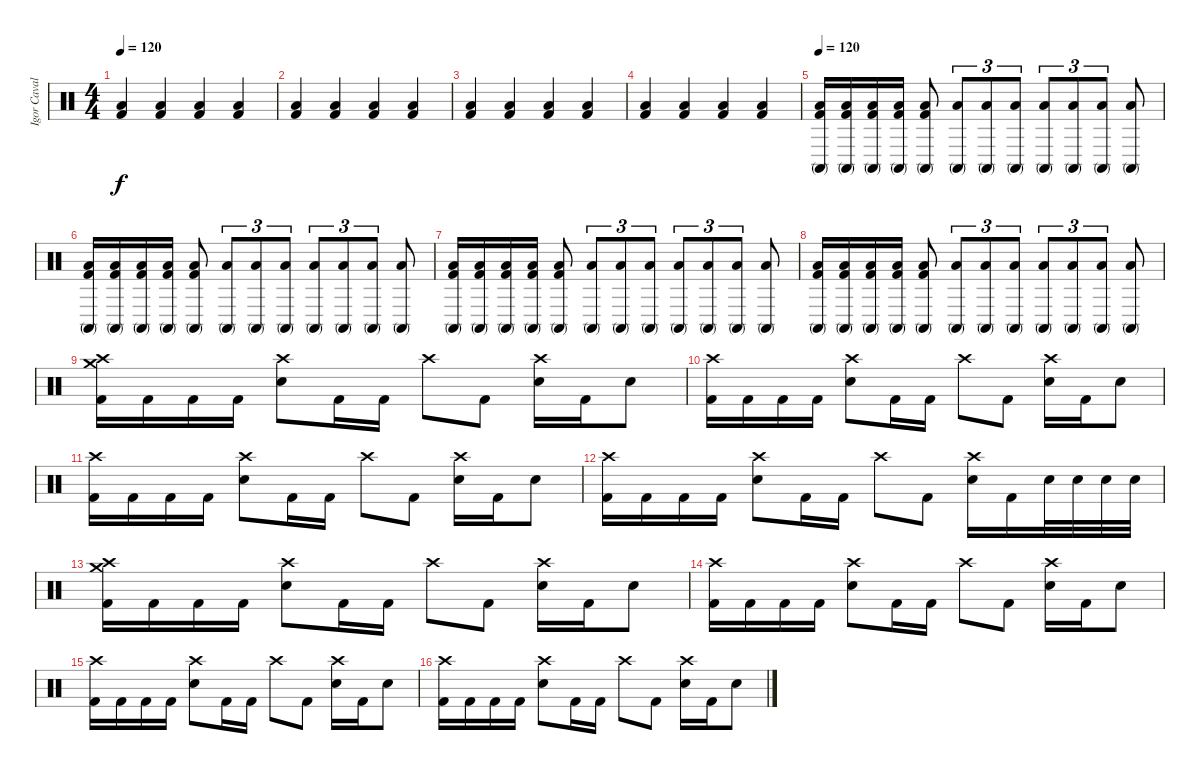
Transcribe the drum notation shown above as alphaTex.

\track ("Igor Cavalera" "Igor Caval") {instrument percussion}
\staff {score}
\articulation defaults
\ts (4 4)
\tempo 120
\tempo 135
\tempo 120
\clef neutral
\ks c
("Low Floor Tom (hit)" "Kick (hit) 2").4{dy f} ("Low Floor Tom (hit)" "Kick (hit) 2").4 ("Low Floor Tom (hit)" "Kick (hit) 2").4 ("Low Floor Tom (hit)" "Kick (hit) 2").4 |
("Low Floor Tom (hit)" "Kick (hit) 2").4 ("Low Floor Tom (hit)" "Kick (hit) 2").4 ("Low Floor Tom (hit)" "Kick (hit) 2").4 ("Low Floor Tom (hit)" "Kick (hit) 2").4 |
("Low Floor Tom (hit)" "Kick (hit) 2").4 ("Low Floor Tom (hit)" "Kick (hit) 2").4 ("Low Floor Tom (hit)" "Kick (hit) 2").4 ("Low Floor Tom (hit)" "Kick (hit) 2").4 |
("Low Floor Tom (hit)" "Kick (hit) 2").4 ("Low Floor Tom (hit)" "Kick (hit) 2").4 ("Low Floor Tom (hit)" "Kick (hit) 2").4 ("Low Floor Tom (hit)" "Kick (hit) 2").4 |
\tempo 120
("Low Floor Tom (hit)" "Conga high (mute)" "Kick (hit) 2").16{volume 16} ("Low Floor Tom (hit)" "Conga high (mute)" "Kick (hit) 2").16 ("Low Floor Tom (hit)" "Conga high (mute)" "Kick (hit) 2").16 ("Low Floor Tom (hit)" "Conga high (mute)" "Kick (hit) 2").16 ("Low Floor Tom (hit)" "Conga high (mute)" "Kick (hit) 2").8 ("Low Floor Tom (hit)" "Conga high (mute)").8{tu (3 2)} ("Low Floor Tom (hit)" "Conga high (mute)").8{tu (3 2)} ("Low Floor Tom (hit)" "Conga high (mute)").8{tu (3 2)} ("Low Floor Tom (hit)" "Conga high (mute)").8{tu (3 2)} ("Low Floor Tom (hit)" "Conga high (mute)").8{tu (3 2)} ("Low Floor Tom (hit)" "Conga high (mute)").8{tu (3 2)} ("Low Floor Tom (hit)" "Conga high (mute)").8 |
("Low Floor Tom (hit)" "Conga high (mute)" "Kick (hit) 2").16{volume 16} ("Low Floor Tom (hit)" "Conga high (mute)" "Kick (hit) 2").16 ("Low Floor Tom (hit)" "Conga high (mute)" "Kick (hit) 2").16 ("Low Floor Tom (hit)" "Conga high (mute)" "Kick (hit) 2").16 ("Low Floor Tom (hit)" "Conga high (mute)" "Kick (hit) 2").8 ("Low Floor Tom (hit)" "Conga high (mute)").8{tu (3 2)} ("Low Floor Tom (hit)" "Conga high (mute)").8{tu (3 2)} ("Low Floor Tom (hit)" "Conga high (mute)").8{tu (3 2)} ("Low Floor Tom (hit)" "Conga high (mute)").8{tu (3 2)} ("Low Floor Tom (hit)" "Conga high (mute)").8{tu (3 2)} ("Low Floor Tom (hit)" "Conga high (mute)").8{tu (3 2)} ("Low Floor Tom (hit)" "Conga high (mute)").8 |
("Low Floor Tom (hit)" "Conga high (mute)" "Kick (hit) 2").16{volume 16} ("Low Floor Tom (hit)" "Conga high (mute)" "Kick (hit) 2").16 ("Low Floor Tom (hit)" "Conga high (mute)" "Kick (hit) 2").16 ("Low Floor Tom (hit)" "Conga high (mute)" "Kick (hit) 2").16 ("Low Floor Tom (hit)" "Conga high (mute)" "Kick (hit) 2").8 ("Low Floor Tom (hit)" "Conga high (mute)").8{tu (3 2)} ("Low Floor Tom (hit)" "Conga high (mute)").8{tu (3 2)} ("Low Floor Tom (hit)" "Conga high (mute)").8{tu (3 2)} ("Low Floor Tom (hit)" "Conga high (mute)").8{tu (3 2)} ("Low Floor Tom (hit)" "Conga high (mute)").8{tu (3 2)} ("Low Floor Tom (hit)" "Conga high (mute)").8{tu (3 2)} ("Low Floor Tom (hit)" "Conga high (mute)").8 |
("Low Floor Tom (hit)" "Conga high (mute)" "Kick (hit) 2").16{volume 16} ("Low Floor Tom (hit)" "Conga high (mute)" "Kick (hit) 2").16 ("Low Floor Tom (hit)" "Conga high (mute)" "Kick (hit) 2").16 ("Low Floor Tom (hit)" "Conga high (mute)" "Kick (hit) 2").16 ("Low Floor Tom (hit)" "Conga high (mute)" "Kick (hit) 2").8 ("Low Floor Tom (hit)" "Conga high (mute)").8{tu (3 2)} ("Low Floor Tom (hit)" "Conga high (mute)").8{tu (3 2)} ("Low Floor Tom (hit)" "Conga high (mute)").8{tu (3 2)} ("Low Floor Tom (hit)" "Conga high (mute)").8{tu (3 2)} ("Low Floor Tom (hit)" "Conga high (mute)").8{tu (3 2)} ("Low Floor Tom (hit)" "Conga high (mute)").8{tu (3 2)} ("Low Floor Tom (hit)" "Conga high (mute)").8 |
("Crash medium (hit)" "Crash high (hit)" "Kick (hit) 2").16 "Kick (hit) 2".16 "Kick (hit) 2".16 "Kick (hit) 2".16 ("Crash high (hit)" "Electric Snare (hit)").8 "Kick (hit) 2".16 "Kick (hit) 2".16 "Crash high (hit)".8 "Kick (hit) 2".8 ("Crash high (hit)" "Electric Snare (hit)").16 "Kick (hit) 2".16 "Electric Snare (hit)".8 |
("Crash high (hit)" "Kick (hit) 2").16 "Kick (hit) 2".16 "Kick (hit) 2".16 "Kick (hit) 2".16 ("Crash high (hit)" "Electric Snare (hit)").8 "Kick (hit) 2".16 "Kick (hit) 2".16 "Crash high (hit)".8 "Kick (hit) 2".8 ("Crash high (hit)" "Electric Snare (hit)").16 "Kick (hit) 2".16 "Electric Snare (hit)".8 |
("Crash high (hit)" "Kick (hit) 2").16 "Kick (hit) 2".16 "Kick (hit) 2".16 "Kick (hit) 2".16 ("Crash high (hit)" "Electric Snare (hit)").8 "Kick (hit) 2".16 "Kick (hit) 2".16 "Crash high (hit)".8 "Kick (hit) 2".8 ("Crash high (hit)" "Electric Snare (hit)").16 "Kick (hit) 2".16 "Electric Snare (hit)".8 |
("Crash high (hit)" "Kick (hit) 2").16 "Kick (hit) 2".16 "Kick (hit) 2".16 "Kick (hit) 2".16 ("Crash high (hit)" "Electric Snare (hit)").8 "Kick (hit) 2".16 "Kick (hit) 2".16 "Crash high (hit)".8 "Kick (hit) 2".8 ("Crash high (hit)" "Electric Snare (hit)").16 "Kick (hit) 2".16 "Electric Snare (hit)".32 "Electric Snare (hit)".32 "Electric Snare (hit)".32 "Electric Snare (hit)".32 |
("Crash medium (hit)" "Crash high (hit)" "Kick (hit) 2").16 "Kick (hit) 2".16 "Kick (hit) 2".16 "Kick (hit) 2".16 ("Crash high (hit)" "Electric Snare (hit)").8 "Kick (hit) 2".16 "Kick (hit) 2".16 "Crash high (hit)".8 "Kick (hit) 2".8 ("Crash high (hit)" "Electric Snare (hit)").16 "Kick (hit) 2".16 "Electric Snare (hit)".8 |
("Crash high (hit)" "Kick (hit) 2").16 "Kick (hit) 2".16 "Kick (hit) 2".16 "Kick (hit) 2".16 ("Crash high (hit)" "Electric Snare (hit)").8 "Kick (hit) 2".16 "Kick (hit) 2".16 "Crash high (hit)".8 "Kick (hit) 2".8 ("Crash high (hit)" "Electric Snare (hit)").16 "Kick (hit) 2".16 "Electric Snare (hit)".8 |
("Crash high (hit)" "Kick (hit) 2").16 "Kick (hit) 2".16 "Kick (hit) 2".16 "Kick (hit) 2".16 ("Crash high (hit)" "Electric Snare (hit)").8 "Kick (hit) 2".16 "Kick (hit) 2".16 "Crash high (hit)".8 "Kick (hit) 2".8 ("Crash high (hit)" "Electric Snare (hit)").16 "Kick (hit) 2".16 "Electric Snare (hit)".8 |
("Crash high (hit)" "Kick (hit) 2").16 "Kick (hit) 2".16 "Kick (hit) 2".16 "Kick (hit) 2".16 ("Crash high (hit)" "Electric Snare (hit)").8 "Kick (hit) 2".16 "Kick (hit) 2".16 "Crash high (hit)".8 "Kick (hit) 2".8 ("Crash high (hit)" "Electric Snare (hit)").16 "Kick (hit) 2".16 "Electric Snare (hit)".8
